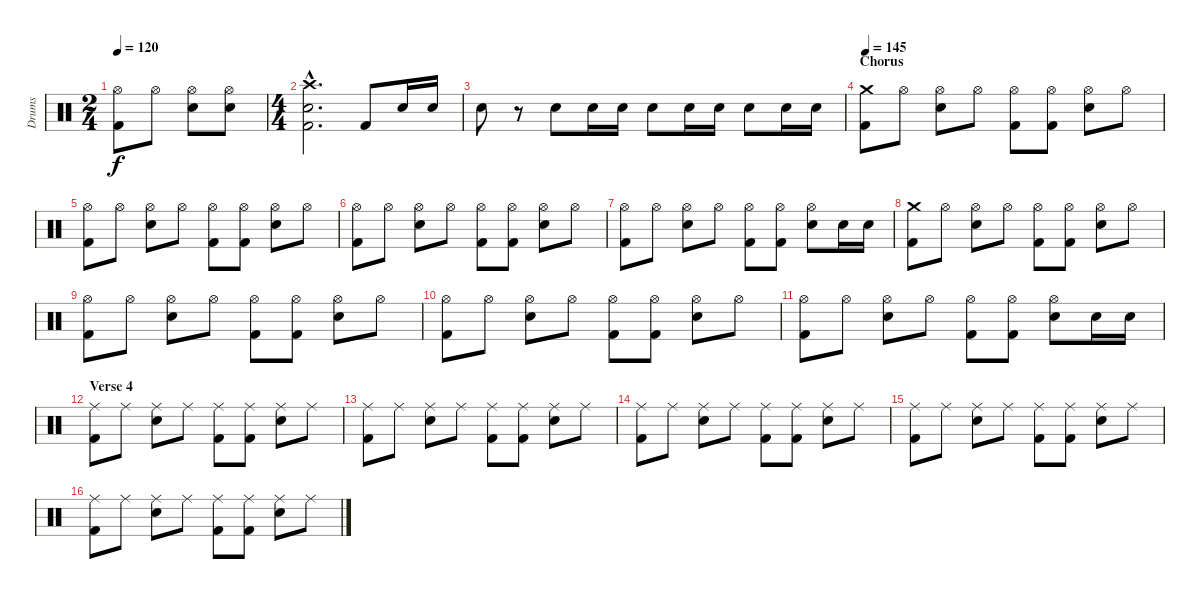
\track ("Drums" "Drums") {instrument percussion}
\staff {score}
\articulation defaults
\ts (2 4)
\tempo 120
\clef neutral
\ks c
("Hi-Hat (open)" "Kick (hit) 2").8{dy f} "Hi-Hat (open)".8 ("Hi-Hat (open)" "Electric Snare (hit)").8 ("Hi-Hat (open)" "Electric Snare (hit)").8 |
\ts (4 4)
("Crash high (hit)"{hac} "Electric Snare (hit)"{hac} "Kick (hit) 2"{hac}).2{d} "Kick (hit) 2".8 "Electric Snare (hit)".16 "Electric Snare (hit)".16 |
"Electric Snare (hit)".8 r.8 "Electric Snare (hit)".8 "Electric Snare (hit)".16 "Electric Snare (hit)".16 "Electric Snare (hit)".8 "Electric Snare (hit)".16 "Electric Snare (hit)".16 "Electric Snare (hit)".8 "Electric Snare (hit)".16 "Electric Snare (hit)".16 |
\section ("" "Chorus")
\tempo 145
("Crash medium (hit)" "Kick (hit) 2").8 "Hi-Hat (open)".8 ("Hi-Hat (open)" "Electric Snare (hit)").8 "Hi-Hat (open)".8 ("Hi-Hat (open)" "Kick (hit) 2").8 ("Hi-Hat (open)" "Kick (hit) 2").8 ("Hi-Hat (open)" "Electric Snare (hit)").8 "Hi-Hat (open)".8 |
("Hi-Hat (open)" "Kick (hit) 2").8 "Hi-Hat (open)".8 ("Hi-Hat (open)" "Electric Snare (hit)").8 "Hi-Hat (open)".8 ("Hi-Hat (open)" "Kick (hit) 2").8 ("Hi-Hat (open)" "Kick (hit) 2").8 ("Hi-Hat (open)" "Electric Snare (hit)").8 "Hi-Hat (open)".8 |
("Hi-Hat (open)" "Kick (hit) 2").8 "Hi-Hat (open)".8 ("Hi-Hat (open)" "Electric Snare (hit)").8 "Hi-Hat (open)".8 ("Hi-Hat (open)" "Kick (hit) 2").8 ("Hi-Hat (open)" "Kick (hit) 2").8 ("Hi-Hat (open)" "Electric Snare (hit)").8 "Hi-Hat (open)".8 |
("Hi-Hat (open)" "Kick (hit) 2").8 "Hi-Hat (open)".8 ("Hi-Hat (open)" "Electric Snare (hit)").8 "Hi-Hat (open)".8 ("Hi-Hat (open)" "Kick (hit) 2").8 ("Hi-Hat (open)" "Kick (hit) 2").8 ("Hi-Hat (open)" "Electric Snare (hit)").8 "Electric Snare (hit)".16 "Electric Snare (hit)".16 |
("Crash medium (hit)" "Kick (hit) 2").8 "Hi-Hat (open)".8 ("Hi-Hat (open)" "Electric Snare (hit)").8 "Hi-Hat (open)".8 ("Hi-Hat (open)" "Kick (hit) 2").8 ("Hi-Hat (open)" "Kick (hit) 2").8 ("Hi-Hat (open)" "Electric Snare (hit)").8 "Hi-Hat (open)".8 |
("Hi-Hat (open)" "Kick (hit) 2").8 "Hi-Hat (open)".8 ("Hi-Hat (open)" "Electric Snare (hit)").8 "Hi-Hat (open)".8 ("Hi-Hat (open)" "Kick (hit) 2").8 ("Hi-Hat (open)" "Kick (hit) 2").8 ("Hi-Hat (open)" "Electric Snare (hit)").8 "Hi-Hat (open)".8 |
("Hi-Hat (open)" "Kick (hit) 2").8 "Hi-Hat (open)".8 ("Hi-Hat (open)" "Electric Snare (hit)").8 "Hi-Hat (open)".8 ("Hi-Hat (open)" "Kick (hit) 2").8 ("Hi-Hat (open)" "Kick (hit) 2").8 ("Hi-Hat (open)" "Electric Snare (hit)").8 "Hi-Hat (open)".8 |
("Hi-Hat (open)" "Kick (hit) 2").8 "Hi-Hat (open)".8 ("Hi-Hat (open)" "Electric Snare (hit)").8 "Hi-Hat (open)".8 ("Hi-Hat (open)" "Kick (hit) 2").8 ("Hi-Hat (open)" "Kick (hit) 2").8 ("Hi-Hat (open)" "Electric Snare (hit)").8 "Electric Snare (hit)".16 "Electric Snare (hit)".16 |
\section ("" "Verse 4")
("Ride (middle)" "Kick (hit) 2").8 "Ride (middle)".8 ("Ride (middle)" "Electric Snare (hit)").8 "Ride (middle)".8 ("Ride (middle)" "Kick (hit) 2").8 ("Ride (middle)" "Kick (hit) 2").8 ("Ride (middle)" "Electric Snare (hit)").8 "Ride (middle)".8 |
("Ride (middle)" "Kick (hit) 2").8 "Ride (middle)".8 ("Ride (middle)" "Electric Snare (hit)").8 "Ride (middle)".8 ("Ride (middle)" "Kick (hit) 2").8 ("Ride (middle)" "Kick (hit) 2").8 ("Ride (middle)" "Electric Snare (hit)").8 "Ride (middle)".8 |
("Ride (middle)" "Kick (hit) 2").8 "Ride (middle)".8 ("Ride (middle)" "Electric Snare (hit)").8 "Ride (middle)".8 ("Ride (middle)" "Kick (hit) 2").8 ("Ride (middle)" "Kick (hit) 2").8 ("Ride (middle)" "Electric Snare (hit)").8 "Ride (middle)".8 |
("Ride (middle)" "Kick (hit) 2").8 "Ride (middle)".8 ("Ride (middle)" "Electric Snare (hit)").8 "Ride (middle)".8 ("Ride (middle)" "Kick (hit) 2").8 ("Ride (middle)" "Kick (hit) 2").8 ("Ride (middle)" "Electric Snare (hit)").8 "Ride (middle)".8 |
("Ride (middle)" "Kick (hit) 2").8 "Ride (middle)".8 ("Ride (middle)" "Electric Snare (hit)").8 "Ride (middle)".8 ("Ride (middle)" "Kick (hit) 2").8 ("Ride (middle)" "Kick (hit) 2").8 ("Ride (middle)" "Electric Snare (hit)").8 "Ride (middle)".8
